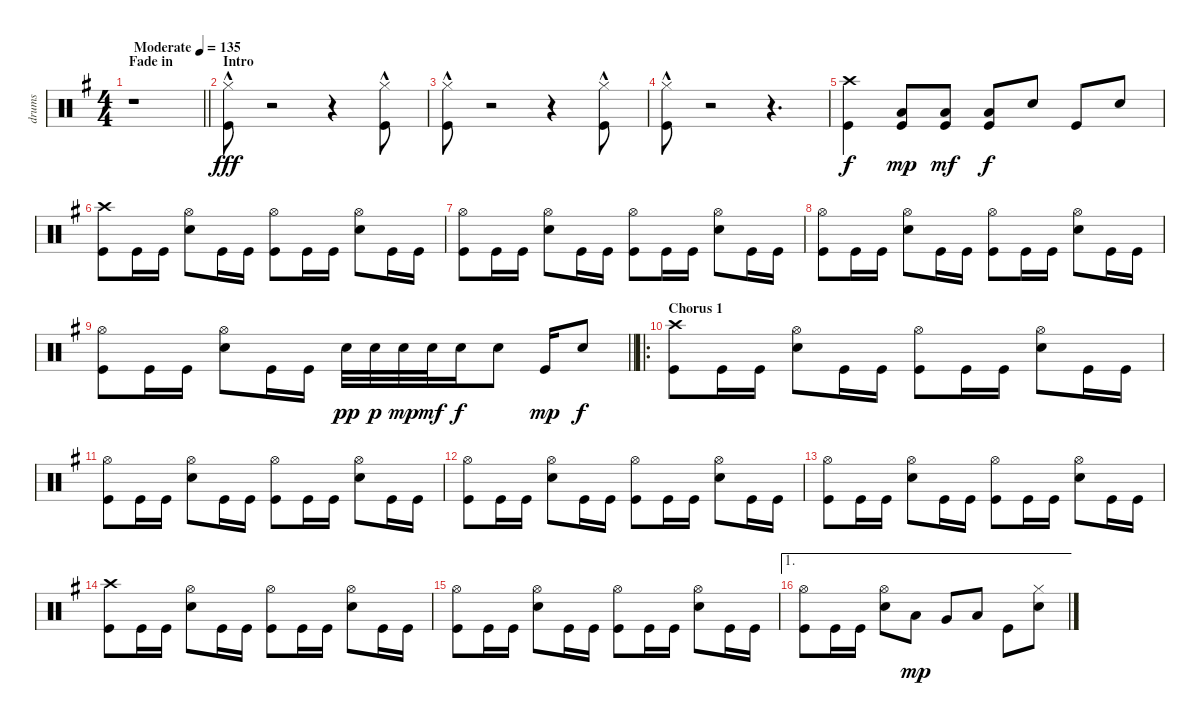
\track ("drums" "drums") {instrument percussion}
\staff {score}
\articulation defaults
\ts (4 4)
\section ("" "Fade in")
\tempo (135 "Moderate")
\clef neutral
\barLineRight lightlight
\ks eminor
r.1{dy fff} |
\section ("" "Intro")
("Hi-Hat (closed)"{hac} "Kick (hit)"{hac}).8 r.2 r.4 ("Hi-Hat (closed)"{hac} "Kick (hit)"{hac}).8 |
("Hi-Hat (closed)"{hac} "Kick (hit)"{hac}).8 r.2 r.4 ("Hi-Hat (closed)"{hac} "Kick (hit)"{hac}).8 |
("Hi-Hat (closed)"{hac} "Kick (hit)"{hac}).8 r.2 r.4{d} |
("Crash high (hit)" "Kick (hit)").4{dy f} ("Low Floor Tom (hit)" "Kick (hit)").8{dy mp} ("Low Floor Tom (hit)" "Kick (hit)").8{dy mf} ("Low Floor Tom (hit)" "Kick (hit)").8{dy f} "Snare (hit) 2".8 "Kick (hit)".8 "Snare (hit) 2".8 |
("Crash high (hit)" "Kick (hit)").8 "Kick (hit)".16 "Kick (hit)".16 ("Hi-Hat (open)" "Snare (hit) 2").8 "Kick (hit)".16 "Kick (hit)".16 ("Hi-Hat (open)" "Kick (hit)").8 "Kick (hit)".16 "Kick (hit)".16 ("Hi-Hat (open)" "Snare (hit) 2").8 "Kick (hit)".16 "Kick (hit)".16 |
("Hi-Hat (open)" "Kick (hit)").8 "Kick (hit)".16 "Kick (hit)".16 ("Hi-Hat (open)" "Snare (hit) 2").8 "Kick (hit)".16 "Kick (hit)".16 ("Hi-Hat (open)" "Kick (hit)").8 "Kick (hit)".16 "Kick (hit)".16 ("Hi-Hat (open)" "Snare (hit) 2").8 "Kick (hit)".16 "Kick (hit)".16 |
("Hi-Hat (open)" "Kick (hit)").8 "Kick (hit)".16 "Kick (hit)".16 ("Hi-Hat (open)" "Snare (hit) 2").8 "Kick (hit)".16 "Kick (hit)".16 ("Hi-Hat (open)" "Kick (hit)").8 "Kick (hit)".16 "Kick (hit)".16 ("Hi-Hat (open)" "Snare (hit) 2").8 "Kick (hit)".16 "Kick (hit)".16 |
\barLineRight lightlight
("Hi-Hat (open)" "Kick (hit)").8 "Kick (hit)".16 "Kick (hit)".16 ("Hi-Hat (open)" "Snare (hit) 2").8 "Kick (hit)".16 "Kick (hit)".16 "Snare (hit) 2".32{dy pp} "Snare (hit) 2".32{dy p} "Snare (hit) 2".32{dy mp} "Snare (hit) 2".32{dy mf} "Snare (hit) 2".16{dy f} "Snare (hit) 2".8 "Kick (hit)".16{dy mp} "Snare (hit) 2".8{dy f} |
\ro
\section ("" "Chorus 1")
("Crash high (hit)" "Kick (hit)").8 "Kick (hit)".16 "Kick (hit)".16 ("Hi-Hat (open)" "Snare (hit) 2").8 "Kick (hit)".16 "Kick (hit)".16 ("Hi-Hat (open)" "Kick (hit)").8 "Kick (hit)".16 "Kick (hit)".16 ("Hi-Hat (open)" "Snare (hit) 2").8 "Kick (hit)".16 "Kick (hit)".16 |
("Hi-Hat (open)" "Kick (hit)").8 "Kick (hit)".16 "Kick (hit)".16 ("Hi-Hat (open)" "Snare (hit) 2").8 "Kick (hit)".16 "Kick (hit)".16 ("Hi-Hat (open)" "Kick (hit)").8 "Kick (hit)".16 "Kick (hit)".16 ("Hi-Hat (open)" "Snare (hit) 2").8 "Kick (hit)".16 "Kick (hit)".16 |
("Hi-Hat (open)" "Kick (hit)").8 "Kick (hit)".16 "Kick (hit)".16 ("Hi-Hat (open)" "Snare (hit) 2").8 "Kick (hit)".16 "Kick (hit)".16 ("Hi-Hat (open)" "Kick (hit)").8 "Kick (hit)".16 "Kick (hit)".16 ("Hi-Hat (open)" "Snare (hit) 2").8 "Kick (hit)".16 "Kick (hit)".16 |
("Hi-Hat (open)" "Kick (hit)").8 "Kick (hit)".16 "Kick (hit)".16 ("Hi-Hat (open)" "Snare (hit) 2").8 "Kick (hit)".16 "Kick (hit)".16 ("Hi-Hat (open)" "Kick (hit)").8 "Kick (hit)".16 "Kick (hit)".16 ("Hi-Hat (open)" "Snare (hit) 2").8 "Kick (hit)".16 "Kick (hit)".16 |
("Crash high (hit)" "Kick (hit)").8 "Kick (hit)".16 "Kick (hit)".16 ("Hi-Hat (open)" "Snare (hit) 2").8 "Kick (hit)".16 "Kick (hit)".16 ("Hi-Hat (open)" "Kick (hit)").8 "Kick (hit)".16 "Kick (hit)".16 ("Hi-Hat (open)" "Snare (hit) 2").8 "Kick (hit)".16 "Kick (hit)".16 |
("Hi-Hat (open)" "Kick (hit)").8 "Kick (hit)".16 "Kick (hit)".16 ("Hi-Hat (open)" "Snare (hit) 2").8 "Kick (hit)".16 "Kick (hit)".16 ("Hi-Hat (open)" "Kick (hit)").8 "Kick (hit)".16 "Kick (hit)".16 ("Hi-Hat (open)" "Snare (hit) 2").8 "Kick (hit)".16 "Kick (hit)".16 |
\ae 1
("Hi-Hat (open)" "Kick (hit)").8 "Kick (hit)".16 "Kick (hit)".16 ("Hi-Hat (open)" "Snare (hit) 2").8 "Low Tom (hit)".8{dy mp} "Very Low Tom (hit)".8 "Low Floor Tom (hit)".8 "Kick (hit)".8 ("Hi-Hat (closed)" "Snare (hit) 2").8
